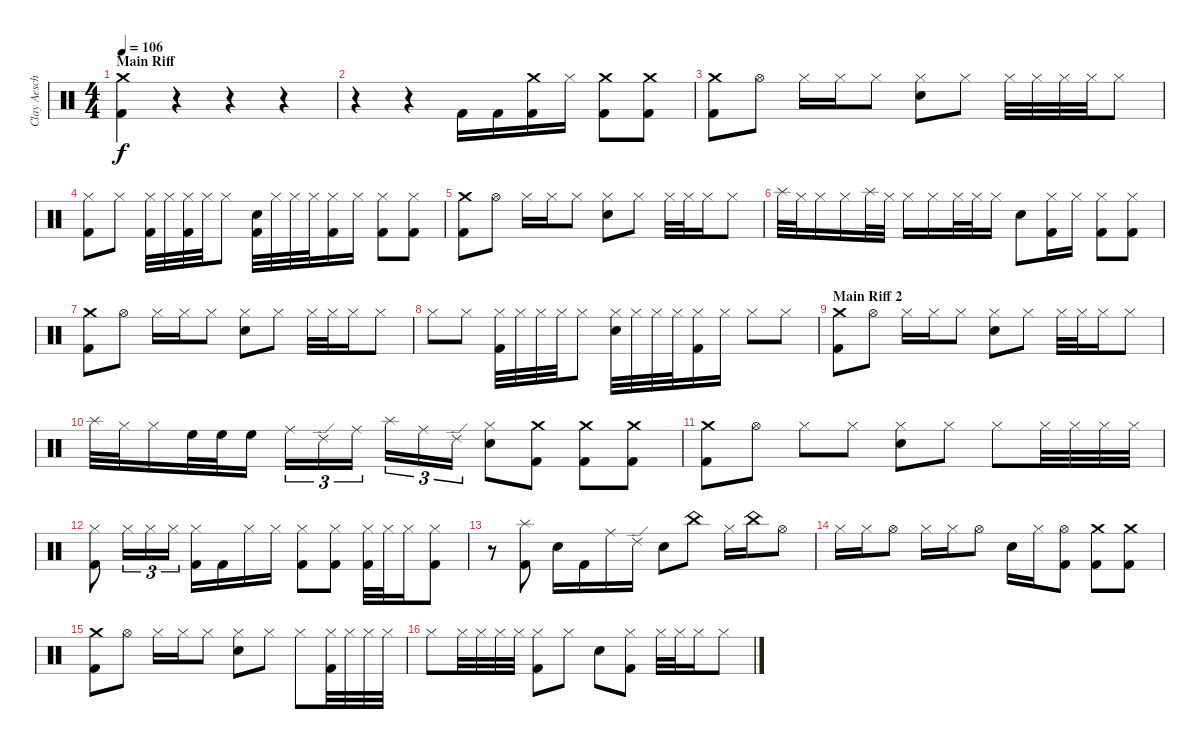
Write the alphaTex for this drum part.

\track ("Clay Aeschliman" "Clay Aesch") {instrument percussion}
\staff {score}
\articulation defaults
\ts (4 4)
\section ("" "Main Riff")
\tempo 106
\clef neutral
\ks c
("Crash medium (hit)" "Kick (hit) 2").4{dy f} r.4 r.4 r.4 |
r.4 r.4 "Kick (hit) 2".16 "Kick (hit) 2".16 ("Crash medium (hit)" "Kick (hit) 2").16 "Hi-Hat (closed)".16 ("Crash medium (hit)" "Kick (hit) 2").8 ("Crash medium (hit)" "Kick (hit) 2").8 |
("Crash medium (hit)" "Kick (hit) 2").8 "Hi-Hat (open)".8 "Hi-Hat (closed)".16 "Hi-Hat (closed)".16 "Hi-Hat (closed)".8 ("Hi-Hat (closed)" "Snare (hit) 2").8 "Hi-Hat (closed)".8 "Hi-Hat (closed)".32 "Hi-Hat (closed)".32 "Hi-Hat (closed)".32 "Hi-Hat (closed)".32 "Hi-Hat (closed)".8 |
("Hi-Hat (closed)" "Kick (hit) 2").8 "Hi-Hat (closed)".8 ("Hi-Hat (closed)" "Kick (hit) 2").32 "Hi-Hat (closed)".32 ("Hi-Hat (closed)" "Kick (hit) 2").32 "Hi-Hat (closed)".32 "Hi-Hat (closed)".8 ("Snare (hit) 2" "Kick (hit) 2").32 "Hi-Hat (closed)".32 "Hi-Hat (closed)".32 "Hi-Hat (closed)".32 ("Hi-Hat (closed)" "Kick (hit) 2").16 "Hi-Hat (closed)".16 ("Hi-Hat (closed)" "Kick (hit) 2").8 ("Hi-Hat (closed)" "Kick (hit) 2").8 |
("Crash medium (hit)" "Kick (hit) 2").8 "Hi-Hat (open)".8 "Hi-Hat (closed)".16 "Hi-Hat (closed)".16 "Hi-Hat (closed)".8 ("Hi-Hat (closed)" "Snare (hit) 2").8 "Hi-Hat (closed)".8 "Hi-Hat (closed)".32 "Hi-Hat (closed)".32 "Hi-Hat (closed)".16 "Hi-Hat (closed)".8 |
"Splash (hit)".32 "Hi-Hat (closed)".32 "Hi-Hat (closed)".16 "Hi-Hat (closed)".16 "Splash (hit)".32 "Hi-Hat (closed)".32 "Hi-Hat (closed)".16 "Hi-Hat (closed)".16 "Hi-Hat (closed)".32 "Hi-Hat (closed)".32 "Hi-Hat (closed)".16 "Snare (hit) 2".8 ("Hi-Hat (closed)" "Kick (hit) 2").16 "Hi-Hat (closed)".16 ("Hi-Hat (closed)" "Kick (hit) 2").8 ("Hi-Hat (closed)" "Kick (hit) 2").8 |
("Crash medium (hit)" "Kick (hit) 2").8 "Hi-Hat (open)".8 "Hi-Hat (closed)".16 "Hi-Hat (closed)".16 "Hi-Hat (closed)".8 ("Hi-Hat (closed)" "Snare (hit) 2").8 "Hi-Hat (closed)".8 "Hi-Hat (closed)".32 "Hi-Hat (closed)".32 "Hi-Hat (closed)".16 "Hi-Hat (closed)".8 |
"Hi-Hat (closed)".8 "Hi-Hat (closed)".8 ("Hi-Hat (closed)" "Kick (hit) 2").32 "Hi-Hat (closed)".32 "Hi-Hat (closed)".32 "Hi-Hat (closed)".32 "Hi-Hat (closed)".8 ("Hi-Hat (closed)" "Snare (hit) 2").32 "Hi-Hat (closed)".32 "Hi-Hat (closed)".32 "Hi-Hat (closed)".32 ("Hi-Hat (closed)" "Kick (hit) 2").16 "Hi-Hat (closed)".16 "Hi-Hat (closed)".8 "Hi-Hat (closed)".8 |
\section ("" "Main Riff 2")
("Crash medium (hit)" "Kick (hit) 2").8 "Hi-Hat (open)".8 "Hi-Hat (closed)".16 "Hi-Hat (closed)".16 "Hi-Hat (closed)".8 ("Hi-Hat (closed)" "Snare (hit) 2").8 "Hi-Hat (closed)".8 "Hi-Hat (closed)".32 "Hi-Hat (closed)".32 "Hi-Hat (closed)".16 "Hi-Hat (closed)".8 |
"Splash (hit)".32 "Hi-Hat (closed)".32 "Hi-Hat (closed)".16 "High Floor Tom (hit)".32 "High Floor Tom (hit)".32 "High Floor Tom (hit)".16 "Ride (middle)".16{tu (3 2)} "Ride (edge) 2".16{tu (3 2)} "Ride (middle)".16{tu (3 2)} "Splash (hit)".16{tu (3 2)} "Ride (middle)".16{tu (3 2)} "Ride (edge) 2".16{tu (3 2)} ("Hi-Hat (closed)" "Snare (hit) 2").8 ("Crash medium (hit)" "Kick (hit) 2").8 ("Crash medium (hit)" "Kick (hit) 2").8 ("Crash medium (hit)" "Kick (hit) 2").8 |
("Crash medium (hit)" "Kick (hit) 2").8 "Hi-Hat (open)".8 "Hi-Hat (closed)".8 "Hi-Hat (closed)".8 ("Hi-Hat (closed)" "Snare (hit) 2").8 "Hi-Hat (closed)".8 "Hi-Hat (closed)".8 "Hi-Hat (closed)".32 "Hi-Hat (closed)".32 "Hi-Hat (closed)".32 "Hi-Hat (closed)".32 |
("Hi-Hat (closed)" "Kick (hit) 2").8 "Hi-Hat (closed)".16{tu (3 2)} "Hi-Hat (closed)".16{tu (3 2)} "Hi-Hat (closed)".16{tu (3 2)} ("Hi-Hat (closed)" "Kick (hit) 2").16 "Kick (hit) 2".16 "Hi-Hat (closed)".16 "Hi-Hat (closed)".16 ("Hi-Hat (closed)" "Kick (hit) 2").8 ("Hi-Hat (closed)" "Kick (hit) 2").8 ("Hi-Hat (closed)" "Kick (hit) 2").32 "Hi-Hat (closed)".32 "Hi-Hat (closed)".16 ("Hi-Hat (closed)" "Kick (hit) 2").8 |
r.8 ("Splash (hit)" "Kick (hit) 2").8 "Snare (hit) 2".16 "Kick (hit) 2".16 "Ride (middle)".16 "Ride (edge) 2".16 "Snare (hit) 2".8 "China (hit)".8 "Hi-Hat (closed)".16 "China (hit)".16 "Hi-Hat (open)".8 |
"Hi-Hat (closed)".16 "Hi-Hat (closed)".16 "Hi-Hat (open)".8 "Hi-Hat (closed)".16 "Hi-Hat (closed)".16 "Hi-Hat (open)".8 "Snare (hit) 2".16 "Hi-Hat (closed)".16 ("Hi-Hat (open)" "Kick (hit) 2").8 ("Crash medium (hit)" "Kick (hit) 2").8 ("Crash medium (hit)" "Kick (hit) 2").8 |
("Crash medium (hit)" "Kick (hit) 2").8 "Hi-Hat (open)".8 "Hi-Hat (closed)".16 "Hi-Hat (closed)".16 "Hi-Hat (closed)".8 ("Hi-Hat (closed)" "Snare (hit) 2").8 "Hi-Hat (closed)".8 "Hi-Hat (closed)".8 ("Hi-Hat (closed)" "Kick (hit) 2").32 "Hi-Hat (closed)".32 "Hi-Hat (closed)".32 "Hi-Hat (closed)".32 |
"Hi-Hat (closed)".8 "Hi-Hat (closed)".32 "Hi-Hat (closed)".32 "Hi-Hat (closed)".32 "Hi-Hat (closed)".32 ("Hi-Hat (closed)" "Kick (hit) 2").8 "Hi-Hat (closed)".8 "Snare (hit) 2".8 ("Hi-Hat (closed)" "Kick (hit) 2").8 "Hi-Hat (closed)".32 "Hi-Hat (closed)".32 "Hi-Hat (closed)".16 "Hi-Hat (closed)".8
